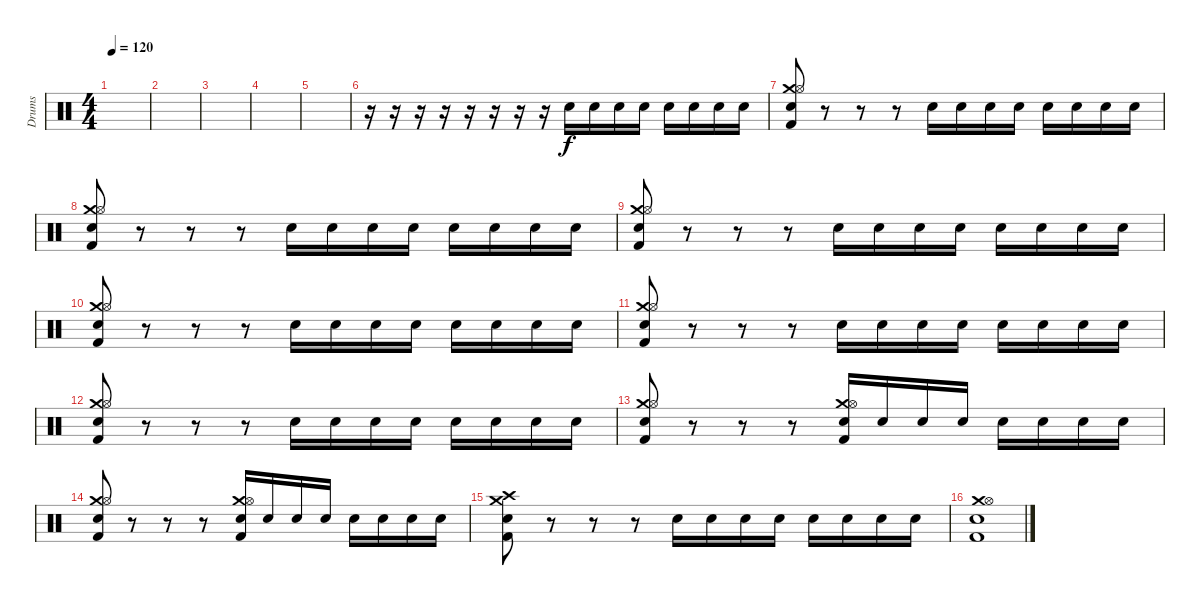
\track ("Drums" "Drums") {instrument percussion}
\staff {score}
\articulation defaults
\ts (4 4)
\tempo 120
\clef neutral
\ks c
|
|
|
|
|
r.16 r.16 r.16 r.16 r.16 r.16 r.16 r.16 "Snare (hit) 2".16 "Snare (hit) 2".16 "Snare (hit) 2".16 "Snare (hit) 2".16 "Snare (hit) 2".16 "Snare (hit) 2".16 "Snare (hit) 2".16 "Snare (hit) 2".16 |
("Crash medium (hit)" "Hi-Hat (open)" "Snare (hit) 2" "Kick (hit) 2").8 r.8 r.8 r.8 "Snare (hit) 2".16 "Snare (hit) 2".16 "Snare (hit) 2".16 "Snare (hit) 2".16 "Snare (hit) 2".16 "Snare (hit) 2".16 "Snare (hit) 2".16 "Snare (hit) 2".16 |
("Crash medium (hit)" "Hi-Hat (open)" "Snare (hit) 2" "Kick (hit) 2").8 r.8 r.8 r.8 "Snare (hit) 2".16 "Snare (hit) 2".16 "Snare (hit) 2".16 "Snare (hit) 2".16 "Snare (hit) 2".16 "Snare (hit) 2".16 "Snare (hit) 2".16 "Snare (hit) 2".16 |
("Crash medium (hit)" "Hi-Hat (open)" "Snare (hit) 2" "Kick (hit) 2").8 r.8 r.8 r.8 "Snare (hit) 2".16 "Snare (hit) 2".16 "Snare (hit) 2".16 "Snare (hit) 2".16 "Snare (hit) 2".16 "Snare (hit) 2".16 "Snare (hit) 2".16 "Snare (hit) 2".16 |
("Crash medium (hit)" "Hi-Hat (open)" "Snare (hit) 2" "Kick (hit) 2").8 r.8 r.8 r.8 "Snare (hit) 2".16 "Snare (hit) 2".16 "Snare (hit) 2".16 "Snare (hit) 2".16 "Snare (hit) 2".16 "Snare (hit) 2".16 "Snare (hit) 2".16 "Snare (hit) 2".16 |
("Crash medium (hit)" "Hi-Hat (open)" "Snare (hit) 2" "Kick (hit) 2").8 r.8 r.8 r.8 "Snare (hit) 2".16 "Snare (hit) 2".16 "Snare (hit) 2".16 "Snare (hit) 2".16 "Snare (hit) 2".16 "Snare (hit) 2".16 "Snare (hit) 2".16 "Snare (hit) 2".16 |
("Crash medium (hit)" "Hi-Hat (open)" "Snare (hit) 2" "Kick (hit) 2").8 r.8 r.8 r.8 "Snare (hit) 2".16 "Snare (hit) 2".16 "Snare (hit) 2".16 "Snare (hit) 2".16 "Snare (hit) 2".16 "Snare (hit) 2".16 "Snare (hit) 2".16 "Snare (hit) 2".16 |
("Crash medium (hit)" "Hi-Hat (open)" "Snare (hit) 2" "Kick (hit) 2").8 r.8 r.8 r.8 ("Crash medium (hit)" "Hi-Hat (open)" "Snare (hit) 2" "Kick (hit) 2").16 "Snare (hit) 2".16 "Snare (hit) 2".16 "Snare (hit) 2".16 "Snare (hit) 2".16 "Snare (hit) 2".16 "Snare (hit) 2".16 "Snare (hit) 2".16 |
("Crash medium (hit)" "Hi-Hat (open)" "Snare (hit) 2" "Kick (hit) 2").8 r.8 r.8 r.8 ("Crash medium (hit)" "Hi-Hat (open)" "Snare (hit) 2" "Kick (hit) 2").16 "Snare (hit) 2".16 "Snare (hit) 2".16 "Snare (hit) 2".16 "Snare (hit) 2".16 "Snare (hit) 2".16 "Snare (hit) 2".16 "Snare (hit) 2".16 |
("Crash medium (hit)" "Crash high (hit)" "Snare (hit) 2" "Kick (hit) 2").8 r.8 r.8 r.8 "Snare (hit) 2".16 "Snare (hit) 2".16 "Snare (hit) 2".16 "Snare (hit) 2".16 "Snare (hit) 2".16 "Snare (hit) 2".16 "Snare (hit) 2".16 "Snare (hit) 2".16 |
("Crash medium (hit)" "Hi-Hat (open)" "Snare (hit) 2" "Kick (hit) 2").1
